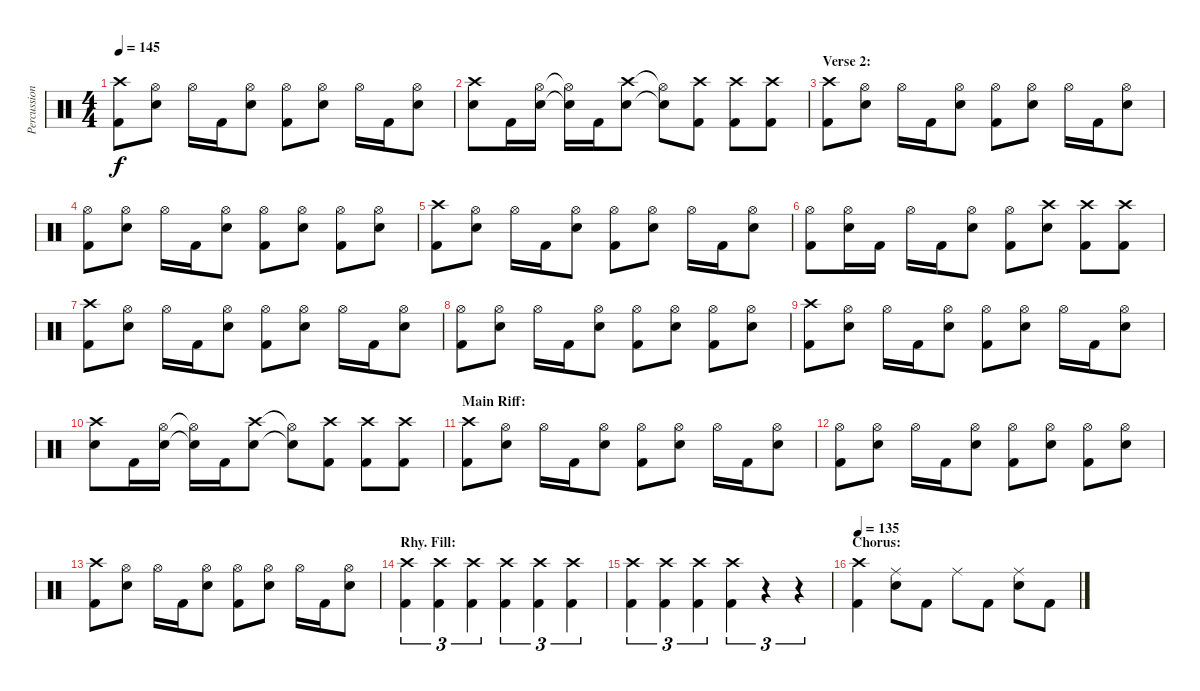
\track ("Percussion" "Percussion") {instrument percussion}
\staff {score}
\articulation defaults
\ts (4 4)
\tempo 145
\clef neutral
\ks c
("Crash high (hit)" "Kick (hit) 2").8{dy f} ("Hi-Hat (open)" "Electric Snare (hit)").8 "Hi-Hat (open)".16 "Kick (hit) 2".16 ("Hi-Hat (open)" "Electric Snare (hit)").8 ("Hi-Hat (open)" "Kick (hit) 2").8 ("Hi-Hat (open)" "Electric Snare (hit)").8 "Hi-Hat (open)".16 "Kick (hit) 2".16 ("Hi-Hat (open)" "Electric Snare (hit)").8 |
("Crash high (hit)" "Electric Snare (hit)").8 "Kick (hit) 2".16 ("Hi-Hat (open)" "Electric Snare (hit)").16 ("Hi-Hat (open)"{t} "Snare (hit)"{t}).16 "Kick (hit) 2".16 ("Crash high (hit)" "Electric Snare (hit)").8 ("Hi-Hat (open)"{t} "Snare (hit)"{t}).8 ("Crash high (hit)" "Kick (hit) 2").8 ("Crash high (hit)" "Kick (hit) 2").8 ("Crash high (hit)" "Kick (hit) 2").8 |
\section ("" "Verse 2:")
("Crash high (hit)" "Kick (hit) 2").8 ("Hi-Hat (open)" "Electric Snare (hit)").8 "Hi-Hat (open)".16 "Kick (hit) 2".16 ("Hi-Hat (open)" "Electric Snare (hit)").8 ("Hi-Hat (open)" "Kick (hit) 2").8 ("Hi-Hat (open)" "Electric Snare (hit)").8 "Hi-Hat (open)".16 "Kick (hit) 2".16 ("Hi-Hat (open)" "Electric Snare (hit)").8 |
("Hi-Hat (open)" "Kick (hit) 2").8 ("Hi-Hat (open)" "Electric Snare (hit)").8 "Hi-Hat (open)".16 "Kick (hit) 2".16 ("Hi-Hat (open)" "Electric Snare (hit)").8 ("Hi-Hat (open)" "Kick (hit) 2").8 ("Hi-Hat (open)" "Electric Snare (hit)").8 ("Hi-Hat (open)" "Kick (hit) 2").8 ("Hi-Hat (open)" "Electric Snare (hit)").8 |
("Crash high (hit)" "Kick (hit) 2").8 ("Hi-Hat (open)" "Electric Snare (hit)").8 "Hi-Hat (open)".16 "Kick (hit) 2".16 ("Hi-Hat (open)" "Electric Snare (hit)").8 ("Hi-Hat (open)" "Kick (hit) 2").8 ("Hi-Hat (open)" "Electric Snare (hit)").8 "Hi-Hat (open)".16 "Kick (hit) 2".16 ("Hi-Hat (open)" "Electric Snare (hit)").8 |
("Hi-Hat (open)" "Kick (hit) 2").8 ("Hi-Hat (open)" "Electric Snare (hit)").16 "Kick (hit) 2".16 "Hi-Hat (open)".16 "Kick (hit) 2".16 ("Hi-Hat (open)" "Electric Snare (hit)").8 ("Hi-Hat (open)" "Kick (hit) 2").8 ("Crash high (hit)" "Electric Snare (hit)").8 ("Crash high (hit)" "Kick (hit) 2").8 ("Crash high (hit)" "Kick (hit) 2").8 |
("Crash high (hit)" "Kick (hit) 2").8 ("Hi-Hat (open)" "Electric Snare (hit)").8 "Hi-Hat (open)".16 "Kick (hit) 2".16 ("Hi-Hat (open)" "Electric Snare (hit)").8 ("Hi-Hat (open)" "Kick (hit) 2").8 ("Hi-Hat (open)" "Electric Snare (hit)").8 "Hi-Hat (open)".16 "Kick (hit) 2".16 ("Hi-Hat (open)" "Electric Snare (hit)").8 |
("Hi-Hat (open)" "Kick (hit) 2").8 ("Hi-Hat (open)" "Electric Snare (hit)").8 "Hi-Hat (open)".16 "Kick (hit) 2".16 ("Hi-Hat (open)" "Electric Snare (hit)").8 ("Hi-Hat (open)" "Kick (hit) 2").8 ("Hi-Hat (open)" "Electric Snare (hit)").8 ("Hi-Hat (open)" "Kick (hit) 2").8 ("Hi-Hat (open)" "Electric Snare (hit)").8 |
("Crash high (hit)" "Kick (hit) 2").8 ("Hi-Hat (open)" "Electric Snare (hit)").8 "Hi-Hat (open)".16 "Kick (hit) 2".16 ("Hi-Hat (open)" "Electric Snare (hit)").8 ("Hi-Hat (open)" "Kick (hit) 2").8 ("Hi-Hat (open)" "Electric Snare (hit)").8 "Hi-Hat (open)".16 "Kick (hit) 2".16 ("Hi-Hat (open)" "Electric Snare (hit)").8 |
("Crash high (hit)" "Electric Snare (hit)").8 "Kick (hit) 2".16 ("Hi-Hat (open)" "Electric Snare (hit)").16 ("Hi-Hat (open)"{t} "Snare (hit)"{t}).16 "Kick (hit) 2".16 ("Crash high (hit)" "Electric Snare (hit)").8 ("Hi-Hat (open)"{t} "Snare (hit)"{t}).8 ("Crash high (hit)" "Kick (hit) 2").8 ("Crash high (hit)" "Kick (hit) 2").8 ("Crash high (hit)" "Kick (hit) 2").8 |
\section ("" "Main Riff:")
("Crash high (hit)" "Kick (hit) 2").8 ("Hi-Hat (open)" "Electric Snare (hit)").8 "Hi-Hat (open)".16 "Kick (hit) 2".16 ("Hi-Hat (open)" "Electric Snare (hit)").8 ("Hi-Hat (open)" "Kick (hit) 2").8 ("Hi-Hat (open)" "Electric Snare (hit)").8 "Hi-Hat (open)".16 "Kick (hit) 2".16 ("Hi-Hat (open)" "Electric Snare (hit)").8 |
("Hi-Hat (open)" "Kick (hit) 2").8 ("Hi-Hat (open)" "Electric Snare (hit)").8 "Hi-Hat (open)".16 "Kick (hit) 2".16 ("Hi-Hat (open)" "Electric Snare (hit)").8 ("Hi-Hat (open)" "Kick (hit) 2").8 ("Hi-Hat (open)" "Electric Snare (hit)").8 ("Hi-Hat (open)" "Kick (hit) 2").8 ("Hi-Hat (open)" "Electric Snare (hit)").8 |
("Crash high (hit)" "Kick (hit) 2").8 ("Hi-Hat (open)" "Electric Snare (hit)").8 "Hi-Hat (open)".16 "Kick (hit) 2".16 ("Hi-Hat (open)" "Electric Snare (hit)").8 ("Hi-Hat (open)" "Kick (hit) 2").8 ("Hi-Hat (open)" "Electric Snare (hit)").8 "Hi-Hat (open)".16 "Kick (hit) 2".16 ("Hi-Hat (open)" "Electric Snare (hit)").8 |
\section ("" "Rhy. Fill:")
("Crash high (hit)" "Kick (hit) 2").4{tu (3 2)} ("Crash high (hit)" "Kick (hit) 2").4{tu (3 2)} ("Crash high (hit)" "Kick (hit) 2").4{tu (3 2)} ("Crash high (hit)" "Kick (hit) 2").4{tu (3 2)} ("Crash high (hit)" "Kick (hit) 2").4{tu (3 2)} ("Crash high (hit)" "Kick (hit) 2").4{tu (3 2)} |
("Crash high (hit)" "Kick (hit) 2").4{tu (3 2)} ("Crash high (hit)" "Kick (hit) 2").4{tu (3 2)} ("Crash high (hit)" "Kick (hit) 2").4{tu (3 2)} ("Crash high (hit)" "Kick (hit) 2").4{tu (3 2)} r.4{tu (3 2)} r.4{tu (3 2)} |
\section ("" "Chorus:")
\tempo 135
("Crash high (hit)" "Kick (hit) 2").4 ("Ride (middle)" "Electric Snare (hit)").8 "Kick (hit) 2".8 "Ride (middle)".8 "Kick (hit) 2".8 ("Ride (middle)" "Electric Snare (hit)").8 "Kick (hit) 2".8
